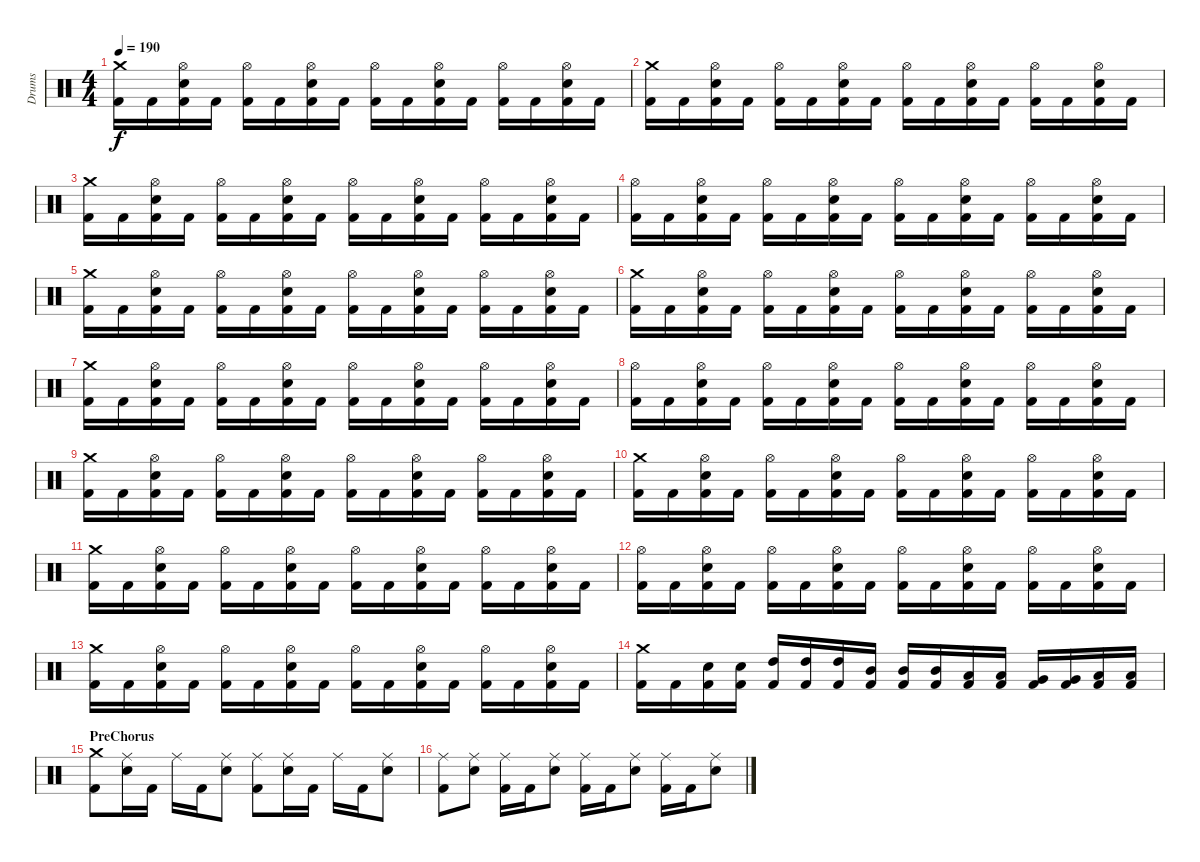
\track ("Drums" "Drums") {instrument percussion}
\staff {score}
\articulation defaults
\ts (4 4)
\tempo 190
\clef neutral
\ks c
("Crash medium (hit)" "Kick (hit) 2").16{dy f} "Kick (hit) 2".16 ("Hi-Hat (open)" "Snare (hit) 2" "Kick (hit) 2").16 "Kick (hit) 2".16 ("Hi-Hat (open)" "Kick (hit) 2").16 "Kick (hit) 2".16 ("Hi-Hat (open)" "Snare (hit) 2" "Kick (hit) 2").16 "Kick (hit) 2".16 ("Hi-Hat (open)" "Kick (hit) 2").16 "Kick (hit) 2".16 ("Hi-Hat (open)" "Snare (hit) 2" "Kick (hit) 2").16 "Kick (hit) 2".16 ("Hi-Hat (open)" "Kick (hit) 2").16 "Kick (hit) 2".16 ("Hi-Hat (open)" "Snare (hit) 2" "Kick (hit) 2").16 "Kick (hit) 2".16 |
("Crash medium (hit)" "Kick (hit) 2").16 "Kick (hit) 2".16 ("Hi-Hat (open)" "Snare (hit) 2" "Kick (hit) 2").16 "Kick (hit) 2".16 ("Hi-Hat (open)" "Kick (hit) 2").16 "Kick (hit) 2".16 ("Hi-Hat (open)" "Snare (hit) 2" "Kick (hit) 2").16 "Kick (hit) 2".16 ("Hi-Hat (open)" "Kick (hit) 2").16 "Kick (hit) 2".16 ("Hi-Hat (open)" "Snare (hit) 2" "Kick (hit) 2").16 "Kick (hit) 2".16 ("Hi-Hat (open)" "Kick (hit) 2").16 "Kick (hit) 2".16 ("Hi-Hat (open)" "Snare (hit) 2" "Kick (hit) 2").16 "Kick (hit) 2".16 |
("Crash medium (hit)" "Kick (hit) 2").16 "Kick (hit) 2".16 ("Hi-Hat (open)" "Snare (hit) 2" "Kick (hit) 2").16 "Kick (hit) 2".16 ("Hi-Hat (open)" "Kick (hit) 2").16 "Kick (hit) 2".16 ("Hi-Hat (open)" "Snare (hit) 2" "Kick (hit) 2").16 "Kick (hit) 2".16 ("Hi-Hat (open)" "Kick (hit) 2").16 "Kick (hit) 2".16 ("Hi-Hat (open)" "Snare (hit) 2" "Kick (hit) 2").16 "Kick (hit) 2".16 ("Hi-Hat (open)" "Kick (hit) 2").16 "Kick (hit) 2".16 ("Hi-Hat (open)" "Snare (hit) 2" "Kick (hit) 2").16 "Kick (hit) 2".16 |
("Hi-Hat (open)" "Kick (hit) 2").16 "Kick (hit) 2".16 ("Hi-Hat (open)" "Snare (hit) 2" "Kick (hit) 2").16 "Kick (hit) 2".16 ("Hi-Hat (open)" "Kick (hit) 2").16 "Kick (hit) 2".16 ("Hi-Hat (open)" "Snare (hit) 2" "Kick (hit) 2").16 "Kick (hit) 2".16 ("Hi-Hat (open)" "Kick (hit) 2").16 "Kick (hit) 2".16 ("Hi-Hat (open)" "Snare (hit) 2" "Kick (hit) 2").16 "Kick (hit) 2".16 ("Hi-Hat (open)" "Kick (hit) 2").16 "Kick (hit) 2".16 ("Hi-Hat (open)" "Snare (hit) 2" "Kick (hit) 2").16 "Kick (hit) 2".16 |
("Crash medium (hit)" "Kick (hit) 2").16 "Kick (hit) 2".16 ("Hi-Hat (open)" "Snare (hit) 2" "Kick (hit) 2").16 "Kick (hit) 2".16 ("Hi-Hat (open)" "Kick (hit) 2").16 "Kick (hit) 2".16 ("Hi-Hat (open)" "Snare (hit) 2" "Kick (hit) 2").16 "Kick (hit) 2".16 ("Hi-Hat (open)" "Kick (hit) 2").16 "Kick (hit) 2".16 ("Hi-Hat (open)" "Snare (hit) 2" "Kick (hit) 2").16 "Kick (hit) 2".16 ("Hi-Hat (open)" "Kick (hit) 2").16 "Kick (hit) 2".16 ("Hi-Hat (open)" "Snare (hit) 2" "Kick (hit) 2").16 "Kick (hit) 2".16 |
("Crash medium (hit)" "Kick (hit) 2").16 "Kick (hit) 2".16 ("Hi-Hat (open)" "Snare (hit) 2" "Kick (hit) 2").16 "Kick (hit) 2".16 ("Hi-Hat (open)" "Kick (hit) 2").16 "Kick (hit) 2".16 ("Hi-Hat (open)" "Snare (hit) 2" "Kick (hit) 2").16 "Kick (hit) 2".16 ("Hi-Hat (open)" "Kick (hit) 2").16 "Kick (hit) 2".16 ("Hi-Hat (open)" "Snare (hit) 2" "Kick (hit) 2").16 "Kick (hit) 2".16 ("Hi-Hat (open)" "Kick (hit) 2").16 "Kick (hit) 2".16 ("Hi-Hat (open)" "Snare (hit) 2" "Kick (hit) 2").16 "Kick (hit) 2".16 |
("Crash medium (hit)" "Kick (hit) 2").16 "Kick (hit) 2".16 ("Hi-Hat (open)" "Snare (hit) 2" "Kick (hit) 2").16 "Kick (hit) 2".16 ("Hi-Hat (open)" "Kick (hit) 2").16 "Kick (hit) 2".16 ("Hi-Hat (open)" "Snare (hit) 2" "Kick (hit) 2").16 "Kick (hit) 2".16 ("Hi-Hat (open)" "Kick (hit) 2").16 "Kick (hit) 2".16 ("Hi-Hat (open)" "Snare (hit) 2" "Kick (hit) 2").16 "Kick (hit) 2".16 ("Hi-Hat (open)" "Kick (hit) 2").16 "Kick (hit) 2".16 ("Hi-Hat (open)" "Snare (hit) 2" "Kick (hit) 2").16 "Kick (hit) 2".16 |
("Hi-Hat (open)" "Kick (hit) 2").16 "Kick (hit) 2".16 ("Hi-Hat (open)" "Snare (hit) 2" "Kick (hit) 2").16 "Kick (hit) 2".16 ("Hi-Hat (open)" "Kick (hit) 2").16 "Kick (hit) 2".16 ("Hi-Hat (open)" "Snare (hit) 2" "Kick (hit) 2").16 "Kick (hit) 2".16 ("Hi-Hat (open)" "Kick (hit) 2").16 "Kick (hit) 2".16 ("Hi-Hat (open)" "Snare (hit) 2" "Kick (hit) 2").16 "Kick (hit) 2".16 ("Hi-Hat (open)" "Kick (hit) 2").16 "Kick (hit) 2".16 ("Hi-Hat (open)" "Snare (hit) 2" "Kick (hit) 2").16 "Kick (hit) 2".16 |
("Crash medium (hit)" "Kick (hit) 2").16 "Kick (hit) 2".16 ("Hi-Hat (open)" "Snare (hit) 2" "Kick (hit) 2").16 "Kick (hit) 2".16 ("Hi-Hat (open)" "Kick (hit) 2").16 "Kick (hit) 2".16 ("Hi-Hat (open)" "Snare (hit) 2" "Kick (hit) 2").16 "Kick (hit) 2".16 ("Hi-Hat (open)" "Kick (hit) 2").16 "Kick (hit) 2".16 ("Hi-Hat (open)" "Snare (hit) 2" "Kick (hit) 2").16 "Kick (hit) 2".16 ("Hi-Hat (open)" "Kick (hit) 2").16 "Kick (hit) 2".16 ("Hi-Hat (open)" "Snare (hit) 2" "Kick (hit) 2").16 "Kick (hit) 2".16 |
("Crash medium (hit)" "Kick (hit) 2").16 "Kick (hit) 2".16 ("Hi-Hat (open)" "Snare (hit) 2" "Kick (hit) 2").16 "Kick (hit) 2".16 ("Hi-Hat (open)" "Kick (hit) 2").16 "Kick (hit) 2".16 ("Hi-Hat (open)" "Snare (hit) 2" "Kick (hit) 2").16 "Kick (hit) 2".16 ("Hi-Hat (open)" "Kick (hit) 2").16 "Kick (hit) 2".16 ("Hi-Hat (open)" "Snare (hit) 2" "Kick (hit) 2").16 "Kick (hit) 2".16 ("Hi-Hat (open)" "Kick (hit) 2").16 "Kick (hit) 2".16 ("Hi-Hat (open)" "Snare (hit) 2" "Kick (hit) 2").16 "Kick (hit) 2".16 |
("Crash medium (hit)" "Kick (hit) 2").16 "Kick (hit) 2".16 ("Hi-Hat (open)" "Snare (hit) 2" "Kick (hit) 2").16 "Kick (hit) 2".16 ("Hi-Hat (open)" "Kick (hit) 2").16 "Kick (hit) 2".16 ("Hi-Hat (open)" "Snare (hit) 2" "Kick (hit) 2").16 "Kick (hit) 2".16 ("Hi-Hat (open)" "Kick (hit) 2").16 "Kick (hit) 2".16 ("Hi-Hat (open)" "Snare (hit) 2" "Kick (hit) 2").16 "Kick (hit) 2".16 ("Hi-Hat (open)" "Kick (hit) 2").16 "Kick (hit) 2".16 ("Hi-Hat (open)" "Snare (hit) 2" "Kick (hit) 2").16 "Kick (hit) 2".16 |
("Hi-Hat (open)" "Kick (hit) 2").16 "Kick (hit) 2".16 ("Hi-Hat (open)" "Snare (hit) 2" "Kick (hit) 2").16 "Kick (hit) 2".16 ("Hi-Hat (open)" "Kick (hit) 2").16 "Kick (hit) 2".16 ("Hi-Hat (open)" "Snare (hit) 2" "Kick (hit) 2").16 "Kick (hit) 2".16 ("Hi-Hat (open)" "Kick (hit) 2").16 "Kick (hit) 2".16 ("Hi-Hat (open)" "Snare (hit) 2" "Kick (hit) 2").16 "Kick (hit) 2".16 ("Hi-Hat (open)" "Kick (hit) 2").16 "Kick (hit) 2".16 ("Hi-Hat (open)" "Snare (hit) 2" "Kick (hit) 2").16 "Kick (hit) 2".16 |
("Crash medium (hit)" "Kick (hit) 2").16 "Kick (hit) 2".16 ("Hi-Hat (open)" "Snare (hit) 2" "Kick (hit) 2").16 "Kick (hit) 2".16 ("Hi-Hat (open)" "Kick (hit) 2").16 "Kick (hit) 2".16 ("Hi-Hat (open)" "Snare (hit) 2" "Kick (hit) 2").16 "Kick (hit) 2".16 ("Hi-Hat (open)" "Kick (hit) 2").16 "Kick (hit) 2".16 ("Hi-Hat (open)" "Snare (hit) 2" "Kick (hit) 2").16 "Kick (hit) 2".16 ("Hi-Hat (open)" "Kick (hit) 2").16 "Kick (hit) 2".16 ("Hi-Hat (open)" "Snare (hit) 2" "Kick (hit) 2").16 "Kick (hit) 2".16 |
("Crash medium (hit)" "Kick (hit) 2").16 "Kick (hit) 2".16 ("Snare (hit) 2" "Kick (hit) 2").16 ("Snare (hit) 2" "Kick (hit) 2").16 ("High Tom (hit)" "Kick (hit) 2").16 ("High Tom (hit)" "Kick (hit) 2").16 ("High Tom (hit)" "Kick (hit) 2").16 ("Mid Tom (hit)" "Kick (hit) 2").16 ("Mid Tom (hit)" "Kick (hit) 2").16 ("Mid Tom (hit)" "Kick (hit) 2").16 ("Low Tom (hit)" "Kick (hit) 2").16 ("Low Tom (hit)" "Kick (hit) 2").16 ("Very Low Tom (hit)" "Kick (hit) 2").16 ("Very Low Tom (hit)" "Kick (hit) 2").16 ("Low Floor Tom (hit)" "Kick (hit) 2").16 ("Low Floor Tom (hit)" "Kick (hit) 2").16 |
\section ("" "PreChorus")
("Crash medium (hit)" "Kick (hit) 2").8 ("Ride (middle)" "Snare (hit) 2").16 "Kick (hit) 2".16 "Ride (middle)".16 "Kick (hit) 2".16 ("Ride (middle)" "Snare (hit) 2").8 ("Ride (middle)" "Kick (hit) 2").8 ("Ride (middle)" "Snare (hit) 2").16 "Kick (hit) 2".16 "Ride (middle)".16 "Kick (hit) 2".16 ("Ride (middle)" "Snare (hit) 2").8 |
("Ride (middle)" "Kick (hit) 2").8 ("Ride (middle)" "Snare (hit) 2").8 ("Ride (middle)" "Kick (hit) 2").16 "Kick (hit) 2".16 ("Ride (middle)" "Snare (hit) 2").8 ("Ride (middle)" "Kick (hit) 2").16 "Kick (hit) 2".16 ("Ride (middle)" "Snare (hit) 2").8 ("Ride (middle)" "Kick (hit) 2").16 "Kick (hit) 2".16 ("Ride (middle)" "Snare (hit) 2").8
